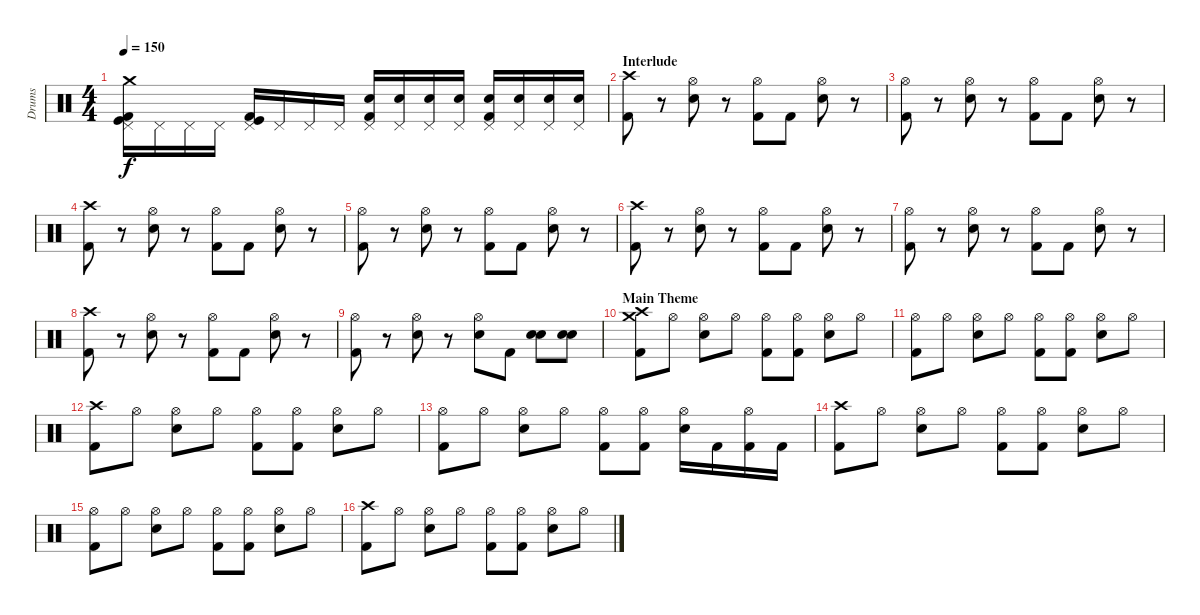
\track ("Drums" "Drums") {instrument percussion}
\staff {score}
\articulation defaults
\ts (4 4)
\tempo 150
\clef neutral
\ks c
("Pedal Hi-Hat (hit)" "Kick (hit) 2" "Kick (hit)" "Crash medium (hit)").16{dy f} "Pedal Hi-Hat (hit)".16 "Pedal Hi-Hat (hit)".16 "Pedal Hi-Hat (hit)".16 ("Pedal Hi-Hat (hit)" "Kick (hit) 2" "Kick (hit)").16 "Pedal Hi-Hat (hit)".16 "Pedal Hi-Hat (hit)".16 "Pedal Hi-Hat (hit)".16 ("Pedal Hi-Hat (hit)" "Snare (hit) 2" "Kick (hit) 2").16 ("Pedal Hi-Hat (hit)" "Snare (hit) 2").16 ("Pedal Hi-Hat (hit)" "Snare (hit) 2").16 ("Pedal Hi-Hat (hit)" "Snare (hit) 2").16 ("Pedal Hi-Hat (hit)" "Snare (hit) 2" "Kick (hit) 2").16 ("Pedal Hi-Hat (hit)" "Snare (hit) 2").16 ("Pedal Hi-Hat (hit)" "Snare (hit) 2").16 ("Pedal Hi-Hat (hit)" "Snare (hit) 2").16 |
\section ("" "Interlude")
("Crash high (hit)" "Kick (hit) 2").8 r.8 ("Hi-Hat (open)" "Snare (hit) 2").8 r.8 ("Hi-Hat (open)" "Kick (hit) 2").8 "Kick (hit) 2".8 ("Hi-Hat (open)" "Snare (hit) 2").8 r.8 |
("Hi-Hat (open)" "Kick (hit) 2").8 r.8 ("Hi-Hat (open)" "Snare (hit) 2").8 r.8 ("Hi-Hat (open)" "Kick (hit) 2").8 "Kick (hit) 2".8 ("Hi-Hat (open)" "Snare (hit) 2").8 r.8 |
("Crash high (hit)" "Kick (hit) 2").8 r.8 ("Hi-Hat (open)" "Snare (hit) 2").8 r.8 ("Hi-Hat (open)" "Kick (hit) 2").8 "Kick (hit) 2".8 ("Hi-Hat (open)" "Snare (hit) 2").8 r.8 |
("Hi-Hat (open)" "Kick (hit) 2").8 r.8 ("Hi-Hat (open)" "Snare (hit) 2").8 r.8 ("Hi-Hat (open)" "Kick (hit) 2").8 "Kick (hit) 2".8 ("Hi-Hat (open)" "Snare (hit) 2").8 r.8 |
("Crash high (hit)" "Kick (hit) 2").8 r.8 ("Hi-Hat (open)" "Snare (hit) 2").8 r.8 ("Hi-Hat (open)" "Kick (hit) 2").8 "Kick (hit) 2".8 ("Hi-Hat (open)" "Snare (hit) 2").8 r.8 |
("Hi-Hat (open)" "Kick (hit) 2").8 r.8 ("Hi-Hat (open)" "Snare (hit) 2").8 r.8 ("Hi-Hat (open)" "Kick (hit) 2").8 "Kick (hit) 2".8 ("Hi-Hat (open)" "Snare (hit) 2").8 r.8 |
("Crash high (hit)" "Kick (hit) 2").8 r.8 ("Hi-Hat (open)" "Snare (hit) 2").8 r.8 ("Hi-Hat (open)" "Kick (hit) 2").8 "Kick (hit) 2".8 ("Hi-Hat (open)" "Snare (hit) 2").8 r.8 |
("Hi-Hat (open)" "Kick (hit) 2").8 r.8 ("Hi-Hat (open)" "Snare (hit) 2").8 r.8 ("Hi-Hat (open)" "Snare (hit) 2").8 "Kick (hit) 2".8 ("Electric Snare (hit)" "Snare (hit) 2").8 ("Electric Snare (hit)" "Snare (hit) 2").8 |
\section ("" "Main Theme")
("Crash high (hit)" "Kick (hit) 2" "Crash medium (hit)").8 "Hi-Hat (open)".8 ("Hi-Hat (open)" "Snare (hit) 2").8 "Hi-Hat (open)".8 ("Hi-Hat (open)" "Kick (hit) 2").8 ("Hi-Hat (open)" "Kick (hit) 2").8 ("Hi-Hat (open)" "Snare (hit) 2").8 "Hi-Hat (open)".8 |
("Hi-Hat (open)" "Kick (hit) 2").8 "Hi-Hat (open)".8 ("Hi-Hat (open)" "Snare (hit) 2").8 "Hi-Hat (open)".8 ("Hi-Hat (open)" "Kick (hit) 2").8 ("Hi-Hat (open)" "Kick (hit) 2").8 ("Hi-Hat (open)" "Snare (hit) 2").8 "Hi-Hat (open)".8 |
("Crash high (hit)" "Kick (hit) 2").8 "Hi-Hat (open)".8 ("Hi-Hat (open)" "Snare (hit) 2").8 "Hi-Hat (open)".8 ("Hi-Hat (open)" "Kick (hit) 2").8 ("Hi-Hat (open)" "Kick (hit) 2").8 ("Hi-Hat (open)" "Snare (hit) 2").8 "Hi-Hat (open)".8 |
("Hi-Hat (open)" "Kick (hit) 2").8 "Hi-Hat (open)".8 ("Hi-Hat (open)" "Snare (hit) 2").8 "Hi-Hat (open)".8 ("Hi-Hat (open)" "Kick (hit) 2").8 ("Hi-Hat (open)" "Kick (hit) 2").8 ("Hi-Hat (open)" "Snare (hit) 2").16 "Kick (hit) 2".16 ("Hi-Hat (open)" "Kick (hit) 2").16 "Kick (hit) 2".16 |
("Crash high (hit)" "Kick (hit) 2").8 "Hi-Hat (open)".8 ("Hi-Hat (open)" "Snare (hit) 2").8 "Hi-Hat (open)".8 ("Hi-Hat (open)" "Kick (hit) 2").8 ("Hi-Hat (open)" "Kick (hit) 2").8 ("Hi-Hat (open)" "Snare (hit) 2").8 "Hi-Hat (open)".8 |
("Hi-Hat (open)" "Kick (hit) 2").8 "Hi-Hat (open)".8 ("Hi-Hat (open)" "Snare (hit) 2").8 "Hi-Hat (open)".8 ("Hi-Hat (open)" "Kick (hit) 2").8 ("Hi-Hat (open)" "Kick (hit) 2").8 ("Hi-Hat (open)" "Snare (hit) 2").8 "Hi-Hat (open)".8 |
("Crash high (hit)" "Kick (hit) 2").8 "Hi-Hat (open)".8 ("Hi-Hat (open)" "Snare (hit) 2").8 "Hi-Hat (open)".8 ("Hi-Hat (open)" "Kick (hit) 2").8 ("Hi-Hat (open)" "Kick (hit) 2").8 ("Hi-Hat (open)" "Snare (hit) 2").8 "Hi-Hat (open)".8
